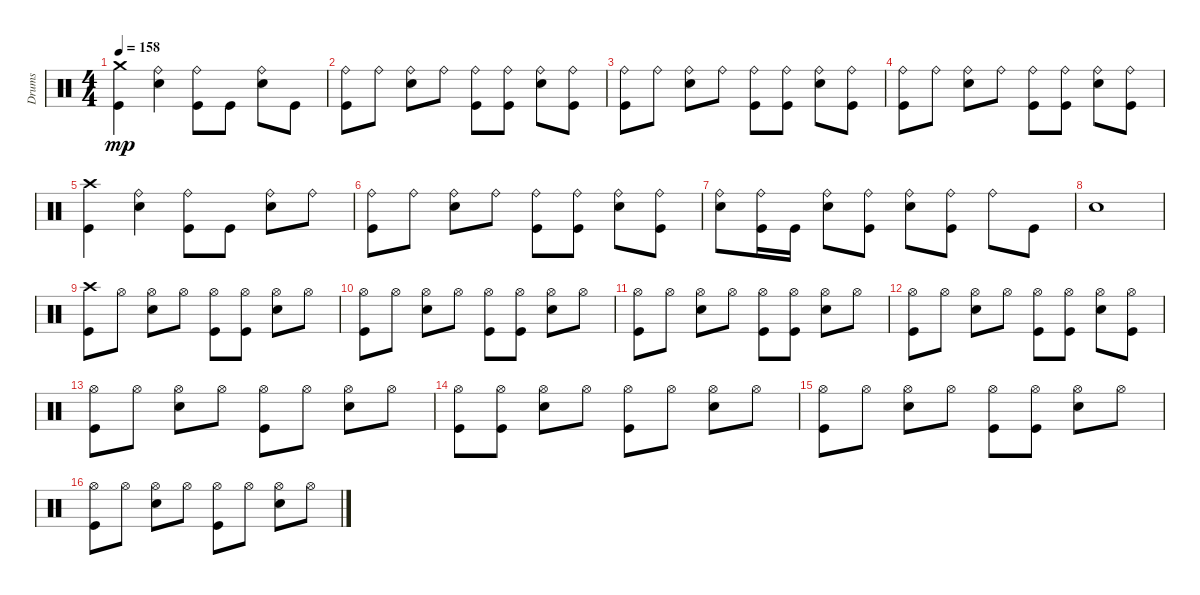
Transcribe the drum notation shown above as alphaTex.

\track ("Drums" "Drums") {instrument percussion}
\staff {score}
\articulation defaults
\ts (4 4)
\tempo 158
\clef neutral
\ks c
("Crash medium (hit)" "Kick (hit)").4{dy mp} ("Ride (bell)" "Snare (hit) 2").4 ("Ride (bell)" "Kick (hit)").8 "Kick (hit)".8 ("Ride (bell)" "Snare (hit) 2").8 "Kick (hit)".8 |
("Ride (bell)" "Kick (hit)").8 "Ride (bell)".8 ("Ride (bell)" "Snare (hit) 2").8 "Ride (bell)".8 ("Ride (bell)" "Kick (hit)").8 ("Ride (bell)" "Kick (hit)").8 ("Ride (bell)" "Snare (hit) 2").8 ("Ride (bell)" "Kick (hit)").8 |
("Ride (bell)" "Kick (hit)").8 "Ride (bell)".8 ("Ride (bell)" "Snare (hit) 2").8 "Ride (bell)".8 ("Ride (bell)" "Kick (hit)").8 ("Ride (bell)" "Kick (hit)").8 ("Ride (bell)" "Snare (hit) 2").8 ("Ride (bell)" "Kick (hit)").8 |
("Ride (bell)" "Kick (hit)").8 "Ride (bell)".8 ("Ride (bell)" "Snare (hit) 2").8 "Ride (bell)".8 ("Ride (bell)" "Kick (hit)").8 ("Ride (bell)" "Kick (hit)").8 ("Ride (bell)" "Snare (hit) 2").8 ("Ride (bell)" "Kick (hit)").8 |
("Crash high (hit)" "Kick (hit)").4 ("Ride (bell)" "Snare (hit) 2").4 ("Ride (bell)" "Kick (hit)").8 "Kick (hit)".8 ("Ride (bell)" "Snare (hit) 2").8 "Ride (bell)".8 |
("Ride (bell)" "Kick (hit)").8 "Ride (bell)".8 ("Ride (bell)" "Snare (hit) 2").8 "Ride (bell)".8 ("Ride (bell)" "Kick (hit)").8 ("Ride (bell)" "Kick (hit)").8 ("Ride (bell)" "Snare (hit) 2").8 ("Ride (bell)" "Kick (hit)").8 |
("Ride (bell)" "Snare (hit) 2").8 ("Ride (bell)" "Kick (hit)").16 "Kick (hit)".16 ("Ride (bell)" "Snare (hit) 2").8 ("Ride (bell)" "Kick (hit)").8 ("Ride (bell)" "Snare (hit) 2").8 ("Ride (bell)" "Kick (hit)").8 "Ride (bell)".8 "Kick (hit)".8 |
"Snare (hit) 2".1 |
("Crash high (hit)" "Kick (hit)").8 "Hi-Hat (open)".8 ("Hi-Hat (open)" "Snare (hit) 2").8 "Hi-Hat (open)".8 ("Hi-Hat (open)" "Kick (hit)").8 ("Hi-Hat (open)" "Kick (hit)").8 ("Hi-Hat (open)" "Snare (hit) 2").8 "Hi-Hat (open)".8 |
("Hi-Hat (open)" "Kick (hit)").8 "Hi-Hat (open)".8 ("Hi-Hat (open)" "Snare (hit) 2").8 "Hi-Hat (open)".8 ("Hi-Hat (open)" "Kick (hit)").8 ("Hi-Hat (open)" "Kick (hit)").8 ("Hi-Hat (open)" "Snare (hit) 2").8 "Hi-Hat (open)".8 |
("Hi-Hat (open)" "Kick (hit)").8 "Hi-Hat (open)".8 ("Hi-Hat (open)" "Snare (hit) 2").8 "Hi-Hat (open)".8 ("Hi-Hat (open)" "Kick (hit)").8 ("Hi-Hat (open)" "Kick (hit)").8 ("Hi-Hat (open)" "Snare (hit) 2").8 "Hi-Hat (open)".8 |
("Hi-Hat (open)" "Kick (hit)").8 "Hi-Hat (open)".8 ("Hi-Hat (open)" "Snare (hit) 2").8 "Hi-Hat (open)".8 ("Hi-Hat (open)" "Kick (hit)").8 ("Hi-Hat (open)" "Kick (hit)").8 ("Hi-Hat (open)" "Snare (hit) 2").8 ("Hi-Hat (open)" "Kick (hit)").8 |
("Hi-Hat (open)" "Kick (hit)").8 "Hi-Hat (open)".8 ("Hi-Hat (open)" "Snare (hit) 2").8 "Hi-Hat (open)".8 ("Hi-Hat (open)" "Kick (hit)").8 "Hi-Hat (open)".8 ("Hi-Hat (open)" "Snare (hit) 2").8 "Hi-Hat (open)".8 |
("Hi-Hat (open)" "Kick (hit)").8 ("Hi-Hat (open)" "Kick (hit)").8 ("Hi-Hat (open)" "Snare (hit) 2").8 "Hi-Hat (open)".8 ("Hi-Hat (open)" "Kick (hit)").8 "Hi-Hat (open)".8 ("Hi-Hat (open)" "Snare (hit) 2").8 "Hi-Hat (open)".8 |
("Hi-Hat (open)" "Kick (hit)").8 "Hi-Hat (open)".8 ("Hi-Hat (open)" "Snare (hit) 2").8 "Hi-Hat (open)".8 ("Hi-Hat (open)" "Kick (hit)").8 ("Hi-Hat (open)" "Kick (hit)").8 ("Hi-Hat (open)" "Snare (hit) 2").8 "Hi-Hat (open)".8 |
("Hi-Hat (open)" "Kick (hit)").8 "Hi-Hat (open)".8 ("Hi-Hat (open)" "Snare (hit) 2").8 "Hi-Hat (open)".8 ("Hi-Hat (open)" "Kick (hit)").8 "Hi-Hat (open)".8 ("Hi-Hat (open)" "Snare (hit) 2").8 "Hi-Hat (open)".8
